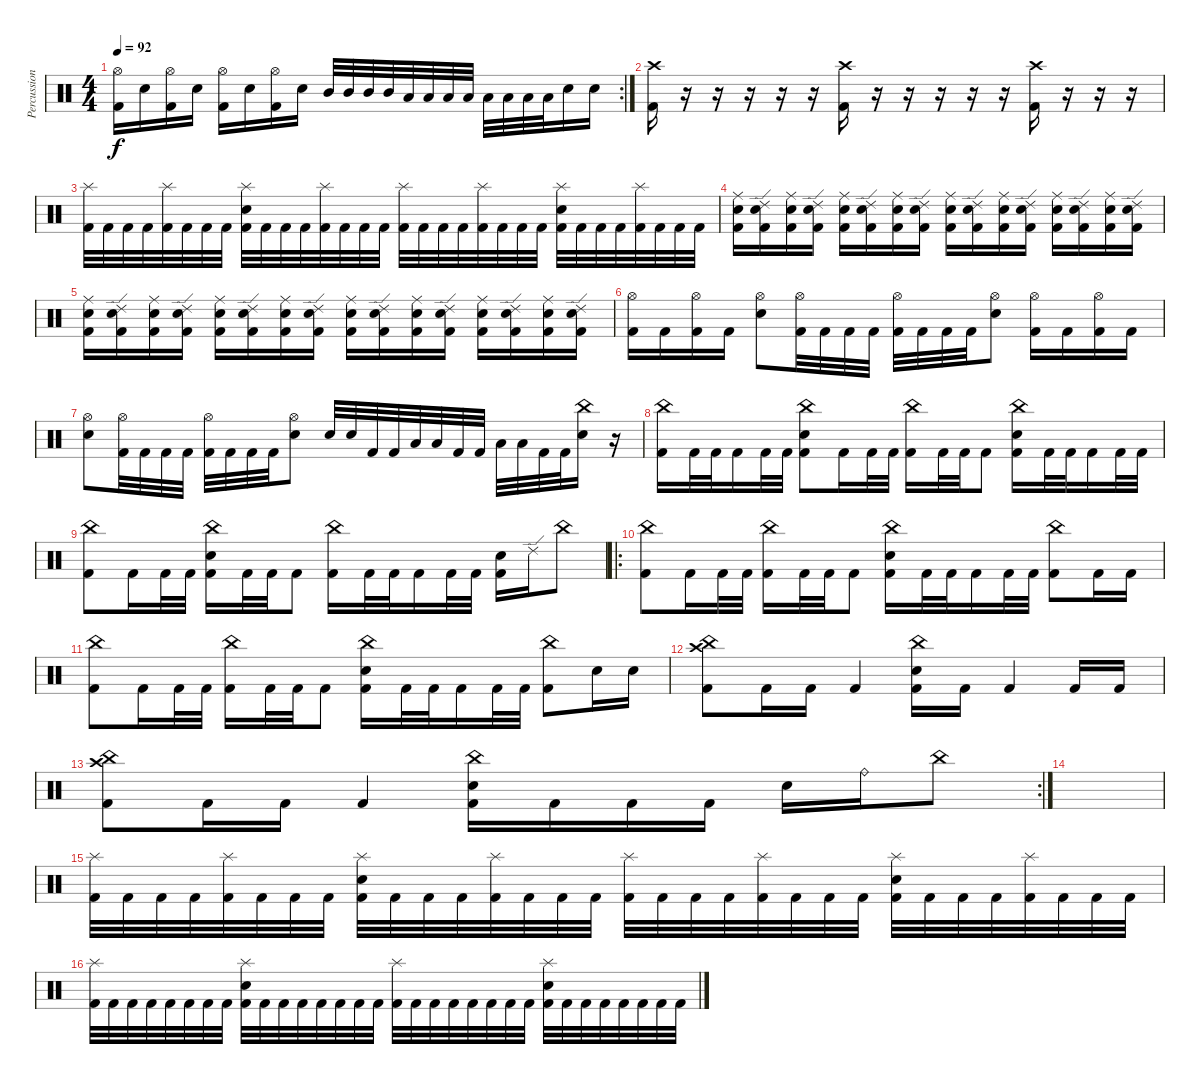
\track ("Percussion" "Percussion") {instrument percussion}
\staff {score}
\articulation defaults
\rc 2
\ts (4 4)
\tempo 92
\clef neutral
\ks c
("Hi-Hat (open)" "Kick (hit) 2").16{dy f} "Electric Snare (hit)".16 ("Hi-Hat (open)" "Kick (hit) 2").16 "Electric Snare (hit)".16 ("Hi-Hat (open)" "Kick (hit) 2").16 "Electric Snare (hit)".16 ("Hi-Hat (open)" "Kick (hit) 2").16 "Electric Snare (hit)".16 "Mid Tom (hit)".32 "Mid Tom (hit)".32 "Mid Tom (hit)".32 "Mid Tom (hit)".32 "Low Tom (hit)".32 "Low Tom (hit)".32 "Low Tom (hit)".32 "Low Tom (hit)".32 "Low Floor Tom (hit)".32 "Low Floor Tom (hit)".32 "Low Floor Tom (hit)".32 "Low Floor Tom (hit)".32 "Electric Snare (hit)".16 "Electric Snare (hit)".16 |
("Crash high (hit)" "Kick (hit) 2").16 r.16 r.16 r.16 r.16 r.16 ("Crash high (hit)" "Kick (hit) 2").16 r.16 r.16 r.16 r.16 r.16 ("Crash high (hit)" "Kick (hit) 2").16 r.16 r.16 r.16 |
("Splash (hit)" "Kick (hit) 2").32 "Kick (hit) 2".32 "Kick (hit) 2".32 "Kick (hit) 2".32 ("Splash (hit)" "Kick (hit) 2").32 "Kick (hit) 2".32 "Kick (hit) 2".32 "Kick (hit) 2".32 ("Splash (hit)" "Electric Snare (hit)" "Kick (hit) 2").32 "Kick (hit) 2".32 "Kick (hit) 2".32 "Kick (hit) 2".32 ("Splash (hit)" "Kick (hit) 2").32 "Kick (hit) 2".32 "Kick (hit) 2".32 "Kick (hit) 2".32 ("Splash (hit)" "Kick (hit) 2").32 "Kick (hit) 2".32 "Kick (hit) 2".32 "Kick (hit) 2".32 ("Splash (hit)" "Kick (hit) 2").32 "Kick (hit) 2".32 "Kick (hit) 2".32 "Kick (hit) 2".32 ("Splash (hit)" "Electric Snare (hit)" "Kick (hit) 2").32 "Kick (hit) 2".32 "Kick (hit) 2".32 "Kick (hit) 2".32 ("Splash (hit)" "Kick (hit) 2").32 "Kick (hit) 2".32 "Kick (hit) 2".32 "Kick (hit) 2".32 |
("Ride (middle)" "Electric Snare (hit)" "Kick (hit) 2").16 ("Ride (edge) 2" "Electric Snare (hit)" "Kick (hit) 2").16 ("Ride (middle)" "Electric Snare (hit)" "Kick (hit) 2").16 ("Ride (edge) 2" "Electric Snare (hit)" "Kick (hit) 2").16 ("Ride (middle)" "Electric Snare (hit)" "Kick (hit) 2").16 ("Ride (edge) 2" "Electric Snare (hit)" "Kick (hit) 2").16 ("Ride (middle)" "Electric Snare (hit)" "Kick (hit) 2").16 ("Ride (edge) 2" "Electric Snare (hit)" "Kick (hit) 2").16 ("Ride (middle)" "Electric Snare (hit)" "Kick (hit) 2").16 ("Ride (edge) 2" "Electric Snare (hit)" "Kick (hit) 2").16 ("Ride (middle)" "Electric Snare (hit)" "Kick (hit) 2").16 ("Ride (edge) 2" "Electric Snare (hit)" "Kick (hit) 2").16 ("Ride (middle)" "Electric Snare (hit)" "Kick (hit) 2").16 ("Ride (edge) 2" "Electric Snare (hit)" "Kick (hit) 2").16 ("Ride (middle)" "Electric Snare (hit)" "Kick (hit) 2").16 ("Ride (edge) 2" "Electric Snare (hit)" "Kick (hit) 2").16 |
("Ride (middle)" "Electric Snare (hit)" "Kick (hit) 2").16 ("Ride (edge) 2" "Electric Snare (hit)" "Kick (hit) 2").16 ("Ride (middle)" "Electric Snare (hit)" "Kick (hit) 2").16 ("Ride (edge) 2" "Electric Snare (hit)" "Kick (hit) 2").16 ("Ride (middle)" "Electric Snare (hit)" "Kick (hit) 2").16 ("Ride (edge) 2" "Electric Snare (hit)" "Kick (hit) 2").16 ("Ride (middle)" "Electric Snare (hit)" "Kick (hit) 2").16 ("Ride (edge) 2" "Electric Snare (hit)" "Kick (hit) 2").16 ("Ride (middle)" "Electric Snare (hit)" "Kick (hit) 2").16 ("Ride (edge) 2" "Electric Snare (hit)" "Kick (hit) 2").16 ("Ride (middle)" "Electric Snare (hit)" "Kick (hit) 2").16 ("Ride (edge) 2" "Electric Snare (hit)" "Kick (hit) 2").16 ("Ride (middle)" "Electric Snare (hit)" "Kick (hit) 2").16 ("Ride (edge) 2" "Electric Snare (hit)" "Kick (hit) 2").16 ("Ride (middle)" "Electric Snare (hit)" "Kick (hit) 2").16 ("Ride (edge) 2" "Electric Snare (hit)" "Kick (hit) 2").16 |
("Hi-Hat (open)" "Kick (hit) 2").16 "Kick (hit) 2".16 ("Hi-Hat (open)" "Kick (hit) 2").16 "Kick (hit) 2".16 ("Hi-Hat (open)" "Electric Snare (hit)").8 ("Hi-Hat (open)" "Kick (hit) 2").32 "Kick (hit) 2".32 "Kick (hit) 2".32 "Kick (hit) 2".32 ("Hi-Hat (open)" "Kick (hit) 2").32 "Kick (hit) 2".32 "Kick (hit) 2".32 "Kick (hit) 2".32 ("Hi-Hat (open)" "Electric Snare (hit)").8 ("Hi-Hat (open)" "Kick (hit) 2").16 "Kick (hit) 2".16 ("Hi-Hat (open)" "Kick (hit) 2").16 "Kick (hit) 2".16 |
("Hi-Hat (open)" "Electric Snare (hit)").8 ("Hi-Hat (open)" "Kick (hit) 2").32 "Kick (hit) 2".32 "Kick (hit) 2".32 "Kick (hit) 2".32 ("Hi-Hat (open)" "Kick (hit) 2").32 "Kick (hit) 2".32 "Kick (hit) 2".32 "Kick (hit) 2".32 ("Hi-Hat (open)" "Electric Snare (hit)").8 "Electric Snare (hit)".32 "Electric Snare (hit)".32 "Kick (hit) 2".32 "Kick (hit) 2".32 "Low Tom (hit)".32 "Low Tom (hit)".32 "Kick (hit) 2".32 "Kick (hit) 2".32 "Low Floor Tom (hit)".32 "Low Floor Tom (hit)".32 "Kick (hit) 2".32 "Kick (hit) 2".32 ("China (hit)" "Electric Snare (hit)").16 r.16 |
("China (hit)" "Kick (hit) 2").16 "Kick (hit) 2".32 "Kick (hit) 2".32 "Kick (hit) 2".16 "Kick (hit) 2".32 "Kick (hit) 2".32 ("China (hit)" "Electric Snare (hit)" "Kick (hit) 2").8 "Kick (hit) 2".16 "Kick (hit) 2".32 "Kick (hit) 2".32 ("China (hit)" "Kick (hit) 2").16 "Kick (hit) 2".32 "Kick (hit) 2".32 "Kick (hit) 2".8 ("China (hit)" "Electric Snare (hit)" "Kick (hit) 2").16 "Kick (hit) 2".32 "Kick (hit) 2".32 "Kick (hit) 2".16 "Kick (hit) 2".32 "Kick (hit) 2".32 |
("China (hit)" "Kick (hit) 2").8 "Kick (hit) 2".16 "Kick (hit) 2".32 "Kick (hit) 2".32 ("China (hit)" "Electric Snare (hit)" "Kick (hit) 2").16 "Kick (hit) 2".32 "Kick (hit) 2".32 "Kick (hit) 2".8 ("China (hit)" "Kick (hit) 2").16 "Kick (hit) 2".32 "Kick (hit) 2".32 "Kick (hit) 2".16 "Kick (hit) 2".32 "Kick (hit) 2".32 ("Electric Snare (hit)" "Kick (hit) 2").16 "Ride (edge) 2".16 "China (hit)".8 |
\ro
("China (hit)" "Kick (hit) 2").8 "Kick (hit) 2".16 "Kick (hit) 2".32 "Kick (hit) 2".32 ("China (hit)" "Kick (hit) 2").16 "Kick (hit) 2".32 "Kick (hit) 2".32 "Kick (hit) 2".8 ("China (hit)" "Electric Snare (hit)" "Kick (hit) 2").16 "Kick (hit) 2".32 "Kick (hit) 2".32 "Kick (hit) 2".16 "Kick (hit) 2".32 "Kick (hit) 2".32 ("China (hit)" "Kick (hit) 2").8 "Kick (hit) 2".16 "Kick (hit) 2".16 |
("China (hit)" "Kick (hit) 2").8 "Kick (hit) 2".16 "Kick (hit) 2".32 "Kick (hit) 2".32 ("China (hit)" "Kick (hit) 2").16 "Kick (hit) 2".32 "Kick (hit) 2".32 "Kick (hit) 2".8 ("China (hit)" "Electric Snare (hit)" "Kick (hit) 2").16 "Kick (hit) 2".32 "Kick (hit) 2".32 "Kick (hit) 2".16 "Kick (hit) 2".32 "Kick (hit) 2".32 ("China (hit)" "Kick (hit) 2").8 "Electric Snare (hit)".16 "Electric Snare (hit)".16 |
("China (hit)" "Crash high (hit)" "Kick (hit) 2").8 "Kick (hit) 2".16 "Kick (hit) 2".16 "Kick (hit) 2".4 ("China (hit)" "Electric Snare (hit)" "Kick (hit) 2").16 "Kick (hit) 2".16 "Kick (hit) 2".4 "Kick (hit) 2".16 "Kick (hit) 2".16 |
\rc 2
("China (hit)" "Crash high (hit)" "Kick (hit) 2").8 "Kick (hit) 2".16 "Kick (hit) 2".16 "Kick (hit) 2".4 ("China (hit)" "Electric Snare (hit)" "Kick (hit) 2").16 "Kick (hit) 2".16 "Kick (hit) 2".16 "Kick (hit) 2".16 "Electric Snare (hit)".16 "Ride (bell)".16 "China (hit)".8 |
|
("Splash (hit)" "Kick (hit) 2").32 "Kick (hit) 2".32 "Kick (hit) 2".32 "Kick (hit) 2".32 ("Splash (hit)" "Kick (hit) 2").32 "Kick (hit) 2".32 "Kick (hit) 2".32 "Kick (hit) 2".32 ("Splash (hit)" "Electric Snare (hit)" "Kick (hit) 2").32 "Kick (hit) 2".32 "Kick (hit) 2".32 "Kick (hit) 2".32 ("Splash (hit)" "Kick (hit) 2").32 "Kick (hit) 2".32 "Kick (hit) 2".32 "Kick (hit) 2".32 ("Splash (hit)" "Kick (hit) 2").32 "Kick (hit) 2".32 "Kick (hit) 2".32 "Kick (hit) 2".32 ("Splash (hit)" "Kick (hit) 2").32 "Kick (hit) 2".32 "Kick (hit) 2".32 "Kick (hit) 2".32 ("Splash (hit)" "Electric Snare (hit)" "Kick (hit) 2").32 "Kick (hit) 2".32 "Kick (hit) 2".32 "Kick (hit) 2".32 ("Splash (hit)" "Kick (hit) 2").32 "Kick (hit) 2".32 "Kick (hit) 2".32 "Kick (hit) 2".32 |
("Splash (hit)" "Kick (hit) 2").32 "Kick (hit) 2".32 "Kick (hit) 2".32 "Kick (hit) 2".32 "Kick (hit) 2".32 "Kick (hit) 2".32 "Kick (hit) 2".32 "Kick (hit) 2".32 ("Splash (hit)" "Electric Snare (hit)" "Kick (hit) 2").32 "Kick (hit) 2".32 "Kick (hit) 2".32 "Kick (hit) 2".32 "Kick (hit) 2".32 "Kick (hit) 2".32 "Kick (hit) 2".32 "Kick (hit) 2".32 ("Splash (hit)" "Kick (hit) 2").32 "Kick (hit) 2".32 "Kick (hit) 2".32 "Kick (hit) 2".32 "Kick (hit) 2".32 "Kick (hit) 2".32 "Kick (hit) 2".32 "Kick (hit) 2".32 ("Splash (hit)" "Electric Snare (hit)" "Kick (hit) 2").32 "Kick (hit) 2".32 "Kick (hit) 2".32 "Kick (hit) 2".32 "Kick (hit) 2".32 "Kick (hit) 2".32 "Kick (hit) 2".32 "Kick (hit) 2".32
